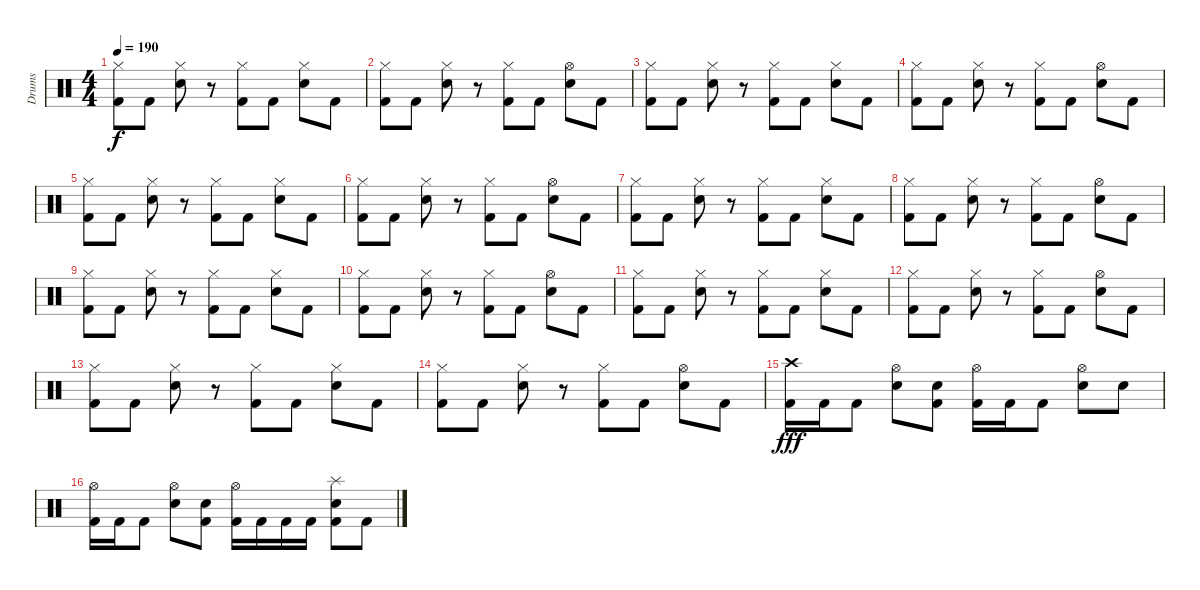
\track ("Drums" "Drums") {instrument percussion}
\staff {score}
\articulation defaults
\ts (4 4)
\tempo 190
\clef neutral
\ks c
("Hi-Hat (closed)" "Kick (hit) 2").8{dy f} "Kick (hit) 2".8 ("Hi-Hat (closed)" "Electric Snare (hit)").8 r.8 ("Hi-Hat (closed)" "Kick (hit) 2").8 "Kick (hit) 2".8 ("Hi-Hat (closed)" "Electric Snare (hit)").8 "Kick (hit) 2".8 |
("Hi-Hat (closed)" "Kick (hit) 2").8 "Kick (hit) 2".8 ("Hi-Hat (closed)" "Electric Snare (hit)").8 r.8 ("Hi-Hat (closed)" "Kick (hit) 2").8 "Kick (hit) 2".8 ("Hi-Hat (open)" "Electric Snare (hit)").8 "Kick (hit) 2".8 |
("Hi-Hat (closed)" "Kick (hit) 2").8 "Kick (hit) 2".8 ("Hi-Hat (closed)" "Electric Snare (hit)").8 r.8 ("Hi-Hat (closed)" "Kick (hit) 2").8 "Kick (hit) 2".8 ("Hi-Hat (closed)" "Electric Snare (hit)").8 "Kick (hit) 2".8 |
("Hi-Hat (closed)" "Kick (hit) 2").8 "Kick (hit) 2".8 ("Hi-Hat (closed)" "Electric Snare (hit)").8 r.8 ("Hi-Hat (closed)" "Kick (hit) 2").8 "Kick (hit) 2".8 ("Hi-Hat (open)" "Electric Snare (hit)").8 "Kick (hit) 2".8 |
("Hi-Hat (closed)" "Kick (hit) 2").8 "Kick (hit) 2".8 ("Hi-Hat (closed)" "Electric Snare (hit)").8 r.8 ("Hi-Hat (closed)" "Kick (hit) 2").8 "Kick (hit) 2".8 ("Hi-Hat (closed)" "Electric Snare (hit)").8 "Kick (hit) 2".8 |
("Hi-Hat (closed)" "Kick (hit) 2").8 "Kick (hit) 2".8 ("Hi-Hat (closed)" "Electric Snare (hit)").8 r.8 ("Hi-Hat (closed)" "Kick (hit) 2").8 "Kick (hit) 2".8 ("Hi-Hat (open)" "Electric Snare (hit)").8 "Kick (hit) 2".8 |
("Hi-Hat (closed)" "Kick (hit) 2").8 "Kick (hit) 2".8 ("Hi-Hat (closed)" "Electric Snare (hit)").8 r.8 ("Hi-Hat (closed)" "Kick (hit) 2").8 "Kick (hit) 2".8 ("Hi-Hat (closed)" "Electric Snare (hit)").8 "Kick (hit) 2".8 |
("Hi-Hat (closed)" "Kick (hit) 2").8 "Kick (hit) 2".8 ("Hi-Hat (closed)" "Electric Snare (hit)").8 r.8 ("Hi-Hat (closed)" "Kick (hit) 2").8 "Kick (hit) 2".8 ("Hi-Hat (open)" "Electric Snare (hit)").8 "Kick (hit) 2".8 |
("Hi-Hat (closed)" "Kick (hit) 2").8 "Kick (hit) 2".8 ("Hi-Hat (closed)" "Electric Snare (hit)").8 r.8 ("Hi-Hat (closed)" "Kick (hit) 2").8 "Kick (hit) 2".8 ("Hi-Hat (closed)" "Electric Snare (hit)").8 "Kick (hit) 2".8 |
("Hi-Hat (closed)" "Kick (hit) 2").8 "Kick (hit) 2".8 ("Hi-Hat (closed)" "Electric Snare (hit)").8 r.8 ("Hi-Hat (closed)" "Kick (hit) 2").8 "Kick (hit) 2".8 ("Hi-Hat (open)" "Electric Snare (hit)").8 "Kick (hit) 2".8 |
("Hi-Hat (closed)" "Kick (hit) 2").8 "Kick (hit) 2".8 ("Hi-Hat (closed)" "Electric Snare (hit)").8 r.8 ("Hi-Hat (closed)" "Kick (hit) 2").8 "Kick (hit) 2".8 ("Hi-Hat (closed)" "Electric Snare (hit)").8 "Kick (hit) 2".8 |
("Hi-Hat (closed)" "Kick (hit) 2").8 "Kick (hit) 2".8 ("Hi-Hat (closed)" "Electric Snare (hit)").8 r.8 ("Hi-Hat (closed)" "Kick (hit) 2").8 "Kick (hit) 2".8 ("Hi-Hat (open)" "Electric Snare (hit)").8 "Kick (hit) 2".8 |
("Hi-Hat (closed)" "Kick (hit) 2").8 "Kick (hit) 2".8 ("Hi-Hat (closed)" "Electric Snare (hit)").8 r.8 ("Hi-Hat (closed)" "Kick (hit) 2").8 "Kick (hit) 2".8 ("Hi-Hat (closed)" "Electric Snare (hit)").8 "Kick (hit) 2".8 |
("Hi-Hat (closed)" "Kick (hit) 2").8 "Kick (hit) 2".8 ("Hi-Hat (closed)" "Electric Snare (hit)").8 r.8 ("Hi-Hat (closed)" "Kick (hit) 2").8 "Kick (hit) 2".8 ("Hi-Hat (open)" "Electric Snare (hit)").8 "Kick (hit) 2".8 |
("Crash high (hit)" "Kick (hit) 2").16{dy fff} "Kick (hit) 2".16 "Kick (hit) 2".8 ("Hi-Hat (open)" "Electric Snare (hit)").8 ("Electric Snare (hit)" "Kick (hit) 2").8 ("Hi-Hat (open)" "Kick (hit) 2").16 "Kick (hit) 2".16 "Kick (hit) 2".8 ("Hi-Hat (open)" "Electric Snare (hit)").8 "Electric Snare (hit)".8 |
("Hi-Hat (open)" "Kick (hit) 2").16 "Kick (hit) 2".16 "Kick (hit) 2".8 ("Hi-Hat (open)" "Electric Snare (hit)").8 ("Electric Snare (hit)" "Kick (hit) 2").8 ("Hi-Hat (open)" "Kick (hit) 2").16 "Kick (hit) 2".16 "Kick (hit) 2".16 "Kick (hit) 2".16 ("Splash (hit)" "Electric Snare (hit)" "Kick (hit) 2").8 "Kick (hit) 2".8
